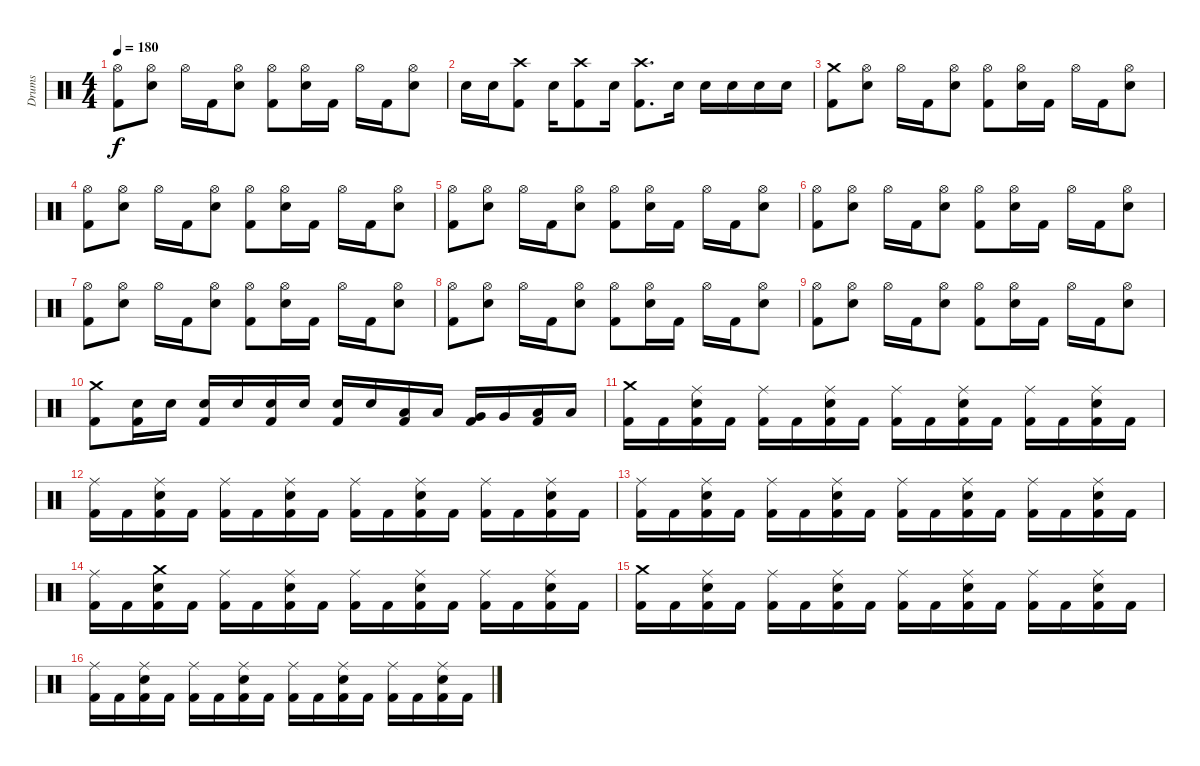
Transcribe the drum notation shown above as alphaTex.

\track ("Drums" "Drums") {instrument percussion}
\staff {score}
\articulation defaults
\ts (4 4)
\tempo 180
\clef neutral
\ks c
("Hi-Hat (open)" "Kick (hit) 2").8{dy f} ("Hi-Hat (open)" "Snare (hit) 2").8 "Hi-Hat (open)".16 "Kick (hit) 2".16 ("Hi-Hat (open)" "Snare (hit) 2").8 ("Hi-Hat (open)" "Kick (hit) 2").8 ("Hi-Hat (open)" "Snare (hit) 2").16 "Kick (hit) 2".16 "Hi-Hat (open)".16 "Kick (hit) 2".16 ("Hi-Hat (open)" "Snare (hit) 2").8 |
"Snare (hit) 2".16 "Snare (hit) 2".16 ("Crash high (hit)" "Kick (hit) 2").8 "Snare (hit) 2".16 ("Crash high (hit)" "Kick (hit) 2").8 "Snare (hit) 2".16 ("Crash high (hit)" "Kick (hit) 2").8{d} "Snare (hit) 2".16 "Snare (hit) 2".16 "Snare (hit) 2".16 "Snare (hit) 2".16 "Snare (hit) 2".16 |
("Crash medium (hit)" "Kick (hit) 2").8 ("Hi-Hat (open)" "Snare (hit) 2").8 "Hi-Hat (open)".16 "Kick (hit) 2".16 ("Hi-Hat (open)" "Snare (hit) 2").8 ("Hi-Hat (open)" "Kick (hit) 2").8 ("Hi-Hat (open)" "Snare (hit) 2").16 "Kick (hit) 2".16 "Hi-Hat (open)".16 "Kick (hit) 2".16 ("Hi-Hat (open)" "Snare (hit) 2").8 |
("Hi-Hat (open)" "Kick (hit) 2").8 ("Hi-Hat (open)" "Snare (hit) 2").8 "Hi-Hat (open)".16 "Kick (hit) 2".16 ("Hi-Hat (open)" "Snare (hit) 2").8 ("Hi-Hat (open)" "Kick (hit) 2").8 ("Hi-Hat (open)" "Snare (hit) 2").16 "Kick (hit) 2".16 "Hi-Hat (open)".16 "Kick (hit) 2".16 ("Hi-Hat (open)" "Snare (hit) 2").8 |
("Hi-Hat (open)" "Kick (hit) 2").8 ("Hi-Hat (open)" "Snare (hit) 2").8 "Hi-Hat (open)".16 "Kick (hit) 2".16 ("Hi-Hat (open)" "Snare (hit) 2").8 ("Hi-Hat (open)" "Kick (hit) 2").8 ("Hi-Hat (open)" "Snare (hit) 2").16 "Kick (hit) 2".16 "Hi-Hat (open)".16 "Kick (hit) 2".16 ("Hi-Hat (open)" "Snare (hit) 2").8 |
("Hi-Hat (open)" "Kick (hit) 2").8 ("Hi-Hat (open)" "Snare (hit) 2").8 "Hi-Hat (open)".16 "Kick (hit) 2".16 ("Hi-Hat (open)" "Snare (hit) 2").8 ("Hi-Hat (open)" "Kick (hit) 2").8 ("Hi-Hat (open)" "Snare (hit) 2").16 "Kick (hit) 2".16 "Hi-Hat (open)".16 "Kick (hit) 2".16 ("Hi-Hat (open)" "Snare (hit) 2").8 |
("Hi-Hat (open)" "Kick (hit) 2").8 ("Hi-Hat (open)" "Snare (hit) 2").8 "Hi-Hat (open)".16 "Kick (hit) 2".16 ("Hi-Hat (open)" "Snare (hit) 2").8 ("Hi-Hat (open)" "Kick (hit) 2").8 ("Hi-Hat (open)" "Snare (hit) 2").16 "Kick (hit) 2".16 "Hi-Hat (open)".16 "Kick (hit) 2".16 ("Hi-Hat (open)" "Snare (hit) 2").8 |
("Hi-Hat (open)" "Kick (hit) 2").8 ("Hi-Hat (open)" "Snare (hit) 2").8 "Hi-Hat (open)".16 "Kick (hit) 2".16 ("Hi-Hat (open)" "Snare (hit) 2").8 ("Hi-Hat (open)" "Kick (hit) 2").8 ("Hi-Hat (open)" "Snare (hit) 2").16 "Kick (hit) 2".16 "Hi-Hat (open)".16 "Kick (hit) 2".16 ("Hi-Hat (open)" "Snare (hit) 2").8 |
("Hi-Hat (open)" "Kick (hit) 2").8 ("Hi-Hat (open)" "Snare (hit) 2").8 "Hi-Hat (open)".16 "Kick (hit) 2".16 ("Hi-Hat (open)" "Snare (hit) 2").8 ("Hi-Hat (open)" "Kick (hit) 2").8 ("Hi-Hat (open)" "Snare (hit) 2").16 "Kick (hit) 2".16 "Hi-Hat (open)".16 "Kick (hit) 2".16 ("Hi-Hat (open)" "Snare (hit) 2").8 |
("Crash medium (hit)" "Kick (hit) 2").8 ("Snare (hit) 2" "Kick (hit) 2").16 "Snare (hit) 2".16 ("Snare (hit) 2" "Kick (hit) 2").16 "Snare (hit) 2".16 ("Snare (hit) 2" "Kick (hit) 2").16 "Snare (hit) 2".16 ("Snare (hit) 2" "Kick (hit) 2").16 "Snare (hit) 2".16 ("Low Tom (hit)" "Kick (hit) 2").16 "Low Tom (hit)".16 ("Very Low Tom (hit)" "Kick (hit) 2").16 "Very Low Tom (hit)".16 ("Low Floor Tom (hit)" "Kick (hit) 2").16 "Low Floor Tom (hit)".16 |
("Crash medium (hit)" "Kick (hit) 2").16 "Kick (hit) 2".16 ("Ride (middle)" "Snare (hit) 2" "Kick (hit) 2").16 "Kick (hit) 2".16 ("Ride (middle)" "Kick (hit) 2").16 "Kick (hit) 2".16 ("Ride (middle)" "Snare (hit) 2" "Kick (hit) 2").16 "Kick (hit) 2".16 ("Ride (middle)" "Kick (hit) 2").16 "Kick (hit) 2".16 ("Ride (middle)" "Snare (hit) 2" "Kick (hit) 2").16 "Kick (hit) 2".16 ("Ride (middle)" "Kick (hit) 2").16 "Kick (hit) 2".16 ("Ride (middle)" "Snare (hit) 2" "Kick (hit) 2").16 "Kick (hit) 2".16 |
("Ride (middle)" "Kick (hit) 2").16 "Kick (hit) 2".16 ("Ride (middle)" "Snare (hit) 2" "Kick (hit) 2").16 "Kick (hit) 2".16 ("Ride (middle)" "Kick (hit) 2").16 "Kick (hit) 2".16 ("Ride (middle)" "Snare (hit) 2" "Kick (hit) 2").16 "Kick (hit) 2".16 ("Ride (middle)" "Kick (hit) 2").16 "Kick (hit) 2".16 ("Ride (middle)" "Snare (hit) 2" "Kick (hit) 2").16 "Kick (hit) 2".16 ("Ride (middle)" "Kick (hit) 2").16 "Kick (hit) 2".16 ("Ride (middle)" "Snare (hit) 2" "Kick (hit) 2").16 "Kick (hit) 2".16 |
("Ride (middle)" "Kick (hit) 2").16 "Kick (hit) 2".16 ("Ride (middle)" "Snare (hit) 2" "Kick (hit) 2").16 "Kick (hit) 2".16 ("Ride (middle)" "Kick (hit) 2").16 "Kick (hit) 2".16 ("Ride (middle)" "Snare (hit) 2" "Kick (hit) 2").16 "Kick (hit) 2".16 ("Ride (middle)" "Kick (hit) 2").16 "Kick (hit) 2".16 ("Ride (middle)" "Snare (hit) 2" "Kick (hit) 2").16 "Kick (hit) 2".16 ("Ride (middle)" "Kick (hit) 2").16 "Kick (hit) 2".16 ("Ride (middle)" "Snare (hit) 2" "Kick (hit) 2").16 "Kick (hit) 2".16 |
("Ride (middle)" "Kick (hit) 2").16 "Kick (hit) 2".16 ("Crash medium (hit)" "Snare (hit) 2" "Kick (hit) 2").16 "Kick (hit) 2".16 ("Ride (middle)" "Kick (hit) 2").16 "Kick (hit) 2".16 ("Ride (middle)" "Snare (hit) 2" "Kick (hit) 2").16 "Kick (hit) 2".16 ("Ride (middle)" "Kick (hit) 2").16 "Kick (hit) 2".16 ("Ride (middle)" "Snare (hit) 2" "Kick (hit) 2").16 "Kick (hit) 2".16 ("Ride (middle)" "Kick (hit) 2").16 "Kick (hit) 2".16 ("Ride (middle)" "Snare (hit) 2" "Kick (hit) 2").16 "Kick (hit) 2".16 |
("Crash medium (hit)" "Kick (hit) 2").16 "Kick (hit) 2".16 ("Ride (middle)" "Snare (hit) 2" "Kick (hit) 2").16 "Kick (hit) 2".16 ("Ride (middle)" "Kick (hit) 2").16 "Kick (hit) 2".16 ("Ride (middle)" "Snare (hit) 2" "Kick (hit) 2").16 "Kick (hit) 2".16 ("Ride (middle)" "Kick (hit) 2").16 "Kick (hit) 2".16 ("Ride (middle)" "Snare (hit) 2" "Kick (hit) 2").16 "Kick (hit) 2".16 ("Ride (middle)" "Kick (hit) 2").16 "Kick (hit) 2".16 ("Ride (middle)" "Snare (hit) 2" "Kick (hit) 2").16 "Kick (hit) 2".16 |
("Ride (middle)" "Kick (hit) 2").16 "Kick (hit) 2".16 ("Ride (middle)" "Snare (hit) 2" "Kick (hit) 2").16 "Kick (hit) 2".16 ("Ride (middle)" "Kick (hit) 2").16 "Kick (hit) 2".16 ("Ride (middle)" "Snare (hit) 2" "Kick (hit) 2").16 "Kick (hit) 2".16 ("Ride (middle)" "Kick (hit) 2").16 "Kick (hit) 2".16 ("Ride (middle)" "Snare (hit) 2" "Kick (hit) 2").16 "Kick (hit) 2".16 ("Ride (middle)" "Kick (hit) 2").16 "Kick (hit) 2".16 ("Ride (middle)" "Snare (hit) 2" "Kick (hit) 2").16 "Kick (hit) 2".16
